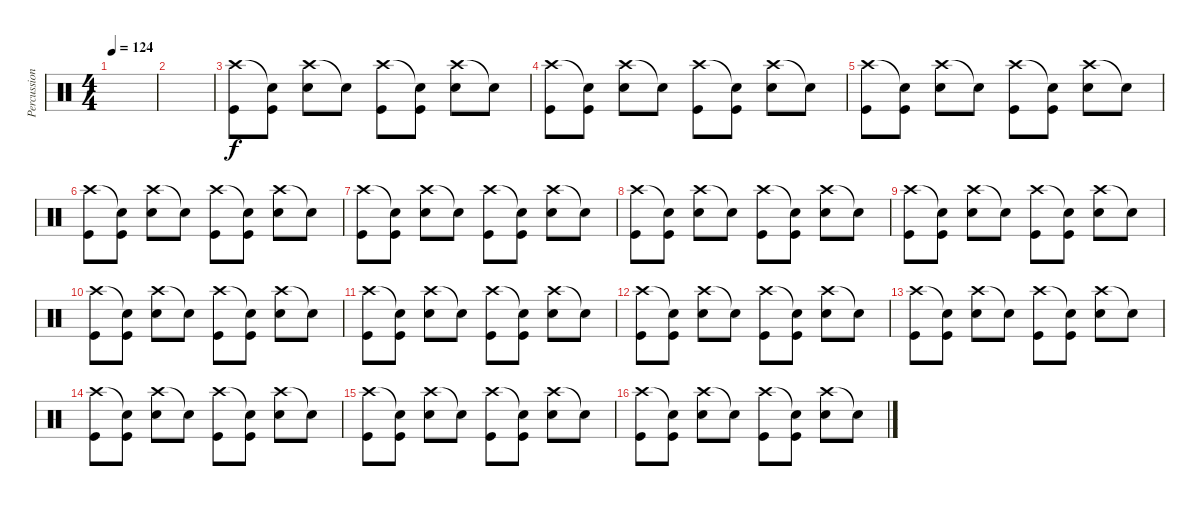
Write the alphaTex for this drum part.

\track ("Percussion" "Percussion") {instrument percussion}
\staff {score}
\articulation defaults
\ts (4 4)
\tempo 124
\clef neutral
\ks c
|
|
("Crash high (hit)" "Kick (hit)").8 ("Snare (hit)"{t} "Kick (hit)").8 ("Crash high (hit)" "Electric Snare (hit)").8 "Snare (hit)"{t}.8 ("Crash high (hit)" "Kick (hit)").8 ("Snare (hit)"{t} "Kick (hit)").8 ("Crash high (hit)" "Electric Snare (hit)").8 "Snare (hit)"{t}.8 |
("Crash high (hit)" "Kick (hit)").8 ("Snare (hit)"{t} "Kick (hit)").8 ("Crash high (hit)" "Electric Snare (hit)").8 "Snare (hit)"{t}.8 ("Crash high (hit)" "Kick (hit)").8 ("Snare (hit)"{t} "Kick (hit)").8 ("Crash high (hit)" "Electric Snare (hit)").8 "Snare (hit)"{t}.8 |
("Crash high (hit)" "Kick (hit)").8 ("Snare (hit)"{t} "Kick (hit)").8 ("Crash high (hit)" "Electric Snare (hit)").8 "Snare (hit)"{t}.8 ("Crash high (hit)" "Kick (hit)").8 ("Snare (hit)"{t} "Kick (hit)").8 ("Crash high (hit)" "Electric Snare (hit)").8 "Snare (hit)"{t}.8 |
("Crash high (hit)" "Kick (hit)").8 ("Snare (hit)"{t} "Kick (hit)").8 ("Crash high (hit)" "Electric Snare (hit)").8 "Snare (hit)"{t}.8 ("Crash high (hit)" "Kick (hit)").8 ("Snare (hit)"{t} "Kick (hit)").8 ("Crash high (hit)" "Electric Snare (hit)").8 "Snare (hit)"{t}.8 |
("Crash high (hit)" "Kick (hit)").8 ("Snare (hit)"{t} "Kick (hit)").8 ("Crash high (hit)" "Electric Snare (hit)").8 "Snare (hit)"{t}.8 ("Crash high (hit)" "Kick (hit)").8 ("Snare (hit)"{t} "Kick (hit)").8 ("Crash high (hit)" "Electric Snare (hit)").8 "Snare (hit)"{t}.8 |
("Crash high (hit)" "Kick (hit)").8 ("Snare (hit)"{t} "Kick (hit)").8 ("Crash high (hit)" "Electric Snare (hit)").8 "Snare (hit)"{t}.8 ("Crash high (hit)" "Kick (hit)").8 ("Snare (hit)"{t} "Kick (hit)").8 ("Crash high (hit)" "Electric Snare (hit)").8 "Snare (hit)"{t}.8 |
("Crash high (hit)" "Kick (hit)").8 ("Snare (hit)"{t} "Kick (hit)").8 ("Crash high (hit)" "Electric Snare (hit)").8 "Snare (hit)"{t}.8 ("Crash high (hit)" "Kick (hit)").8 ("Snare (hit)"{t} "Kick (hit)").8 ("Crash high (hit)" "Electric Snare (hit)").8 "Snare (hit)"{t}.8 |
("Crash high (hit)" "Kick (hit)").8 ("Snare (hit)"{t} "Kick (hit)").8 ("Crash high (hit)" "Electric Snare (hit)").8 "Snare (hit)"{t}.8 ("Crash high (hit)" "Kick (hit)").8 ("Snare (hit)"{t} "Kick (hit)").8 ("Crash high (hit)" "Electric Snare (hit)").8 "Snare (hit)"{t}.8 |
("Crash high (hit)" "Kick (hit)").8 ("Snare (hit)"{t} "Kick (hit)").8 ("Crash high (hit)" "Electric Snare (hit)").8 "Snare (hit)"{t}.8 ("Crash high (hit)" "Kick (hit)").8 ("Snare (hit)"{t} "Kick (hit)").8 ("Crash high (hit)" "Electric Snare (hit)").8 "Snare (hit)"{t}.8 |
("Crash high (hit)" "Kick (hit)").8 ("Snare (hit)"{t} "Kick (hit)").8 ("Crash high (hit)" "Electric Snare (hit)").8 "Snare (hit)"{t}.8 ("Crash high (hit)" "Kick (hit)").8 ("Snare (hit)"{t} "Kick (hit)").8 ("Crash high (hit)" "Electric Snare (hit)").8 "Snare (hit)"{t}.8 |
("Crash high (hit)" "Kick (hit)").8 ("Snare (hit)"{t} "Kick (hit)").8 ("Crash high (hit)" "Electric Snare (hit)").8 "Snare (hit)"{t}.8 ("Crash high (hit)" "Kick (hit)").8 ("Snare (hit)"{t} "Kick (hit)").8 ("Crash high (hit)" "Electric Snare (hit)").8 "Snare (hit)"{t}.8 |
("Crash high (hit)" "Kick (hit)").8 ("Snare (hit)"{t} "Kick (hit)").8 ("Crash high (hit)" "Electric Snare (hit)").8 "Snare (hit)"{t}.8 ("Crash high (hit)" "Kick (hit)").8 ("Snare (hit)"{t} "Kick (hit)").8 ("Crash high (hit)" "Electric Snare (hit)").8 "Snare (hit)"{t}.8 |
("Crash high (hit)" "Kick (hit)").8 ("Snare (hit)"{t} "Kick (hit)").8 ("Crash high (hit)" "Electric Snare (hit)").8 "Snare (hit)"{t}.8 ("Crash high (hit)" "Kick (hit)").8 ("Snare (hit)"{t} "Kick (hit)").8 ("Crash high (hit)" "Electric Snare (hit)").8 "Snare (hit)"{t}.8 |
("Crash high (hit)" "Kick (hit)").8 ("Snare (hit)"{t} "Kick (hit)").8 ("Crash high (hit)" "Electric Snare (hit)").8 "Snare (hit)"{t}.8 ("Crash high (hit)" "Kick (hit)").8 ("Snare (hit)"{t} "Kick (hit)").8 ("Crash high (hit)" "Electric Snare (hit)").8 "Snare (hit)"{t}.8
